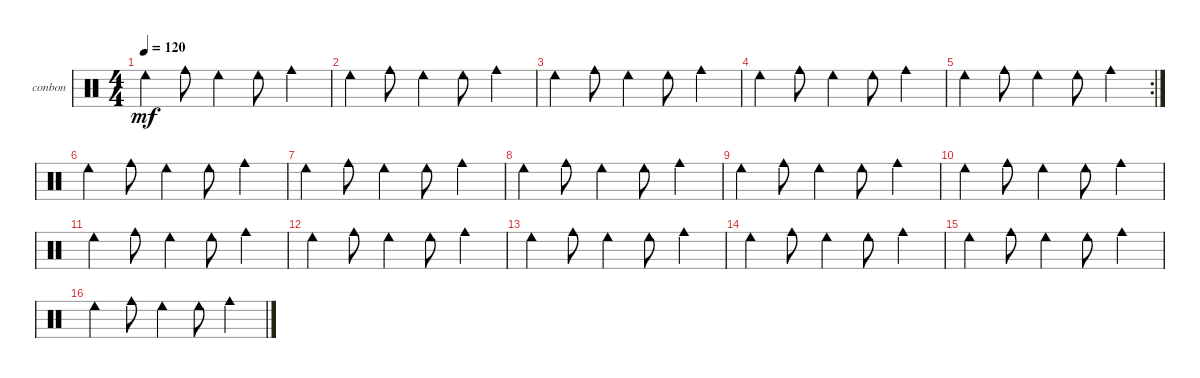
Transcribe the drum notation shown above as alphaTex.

\bracketExtendMode groupsimilarinstruments
\firstSystemTrackNameOrientation horizontal
\otherSystemsTrackNameOrientation horizontal
\track ("Bongos N Congas" "conbon") {instrument percussion}
\staff {score}
\articulation defaults
\ts (4 4)
\tempo 120
\clef neutral
\ks c "Cowbell low (hit)".4{dy mf} "Cowbell medium (hit)".8 "Cowbell low (hit)".4 "Cowbell low (hit)".8 "Cowbell medium (hit)".4
|
"Cowbell low (hit)".4 "Cowbell medium (hit)".8 "Cowbell low (hit)".4 "Cowbell low (hit)".8 "Cowbell medium (hit)".4 |
"Cowbell low (hit)".4 "Cowbell medium (hit)".8 "Cowbell low (hit)".4 "Cowbell low (hit)".8 "Cowbell medium (hit)".4 |
"Cowbell low (hit)".4 "Cowbell medium (hit)".8 "Cowbell low (hit)".4 "Cowbell low (hit)".8 "Cowbell medium (hit)".4 |
\rc 2 "Cowbell low (hit)".4 "Cowbell medium (hit)".8 "Cowbell low (hit)".4 "Cowbell low (hit)".8 "Cowbell medium (hit)".4
|
"Cowbell low (hit)".4 "Cowbell medium (hit)".8 "Cowbell low (hit)".4 "Cowbell low (hit)".8 "Cowbell medium (hit)".4 |
"Cowbell low (hit)".4 "Cowbell medium (hit)".8 "Cowbell low (hit)".4 "Cowbell low (hit)".8 "Cowbell medium (hit)".4 |
"Cowbell low (hit)".4 "Cowbell medium (hit)".8 "Cowbell low (hit)".4 "Cowbell low (hit)".8 "Cowbell medium (hit)".4 |
"Cowbell low (hit)".4 "Cowbell medium (hit)".8 "Cowbell low (hit)".4 "Cowbell low (hit)".8 "Cowbell medium (hit)".4 |
"Cowbell low (hit)".4 "Cowbell medium (hit)".8 "Cowbell low (hit)".4 "Cowbell low (hit)".8 "Cowbell medium (hit)".4 |
"Cowbell low (hit)".4 "Cowbell medium (hit)".8 "Cowbell low (hit)".4 "Cowbell low (hit)".8 "Cowbell medium (hit)".4 |
"Cowbell low (hit)".4 "Cowbell medium (hit)".8 "Cowbell low (hit)".4 "Cowbell low (hit)".8 "Cowbell medium (hit)".4 |
"Cowbell low (hit)".4 "Cowbell medium (hit)".8 "Cowbell low (hit)".4 "Cowbell low (hit)".8 "Cowbell medium (hit)".4 |
"Cowbell low (hit)".4 "Cowbell medium (hit)".8 "Cowbell low (hit)".4 "Cowbell low (hit)".8 "Cowbell medium (hit)".4 |
"Cowbell low (hit)".4 "Cowbell medium (hit)".8 "Cowbell low (hit)".4 "Cowbell low (hit)".8 "Cowbell medium (hit)".4 |
"Cowbell low (hit)".4 "Cowbell medium (hit)".8 "Cowbell low (hit)".4 "Cowbell low (hit)".8 "Cowbell medium (hit)".4
